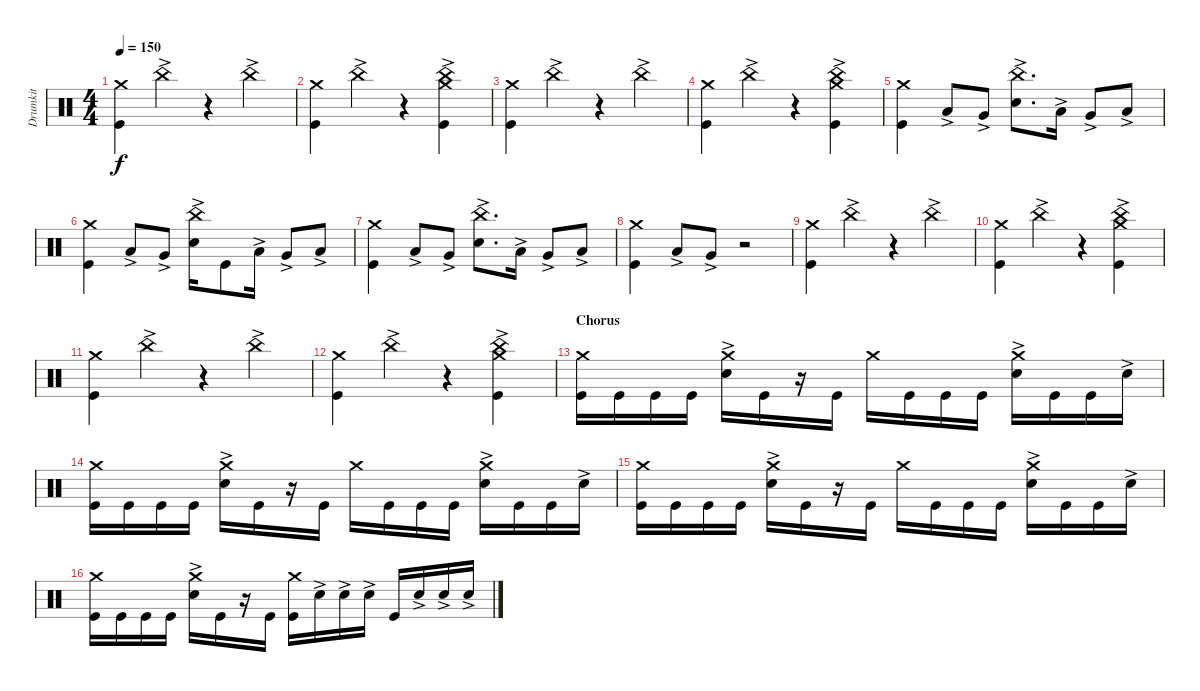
\track ("Drumkit" "Drumkit") {instrument percussion}
\staff {score}
\articulation defaults
\ts (4 4)
\tempo 150
\clef neutral
\ks c
("Kick (hit)" "Crash medium (hit)").4{dy f} "China (hit)"{ac}.4 r.4 "China (hit)"{ac}.4 |
("Crash medium (hit)" "Kick (hit)").4 "China (hit)"{ac}.4 r.4 ("China (hit)"{ac} "Kick (hit)" "Crash medium (hit)").4 |
("Crash medium (hit)" "Kick (hit)").4 "China (hit)"{ac}.4 r.4 "China (hit)"{ac}.4 |
("Crash medium (hit)" "Kick (hit)").4 "China (hit)"{ac}.4 r.4 ("China (hit)"{ac} "Kick (hit)" "Crash medium (hit)").4 |
("Kick (hit)" "Crash medium (hit)").4 "Low Tom (hit)"{ac}.8 "Very Low Tom (hit)"{ac}.8 ("Snare (hit) 2"{ac} "China (hit)"{ac}).8{d} "Low Tom (hit)"{ac}.16 "Very Low Tom (hit)"{ac}.8 "Low Floor Tom (hit)"{ac}.8 |
("Kick (hit)" "Crash medium (hit)").4 "Low Tom (hit)"{ac}.8 "Very Low Tom (hit)"{ac}.8 ("Snare (hit) 2"{ac} "China (hit)"{ac}).16 "Kick (hit)".8 "Low Tom (hit)"{ac}.16 "Very Low Tom (hit)"{ac}.8 "Low Floor Tom (hit)"{ac}.8 |
("Kick (hit)" "Crash medium (hit)").4 "Low Tom (hit)"{ac}.8 "Very Low Tom (hit)"{ac}.8 ("Snare (hit) 2"{ac} "China (hit)"{ac}).8{d} "Low Tom (hit)"{ac}.16 "Very Low Tom (hit)"{ac}.8 "Low Floor Tom (hit)"{ac}.8 |
("Kick (hit)" "Crash medium (hit)").4 "Low Tom (hit)"{ac}.8 "Very Low Tom (hit)"{ac}.8 r.2 |
("Kick (hit)" "Crash medium (hit)").4 "China (hit)"{ac}.4 r.4 "China (hit)"{ac}.4 |
("Crash medium (hit)" "Kick (hit)").4 "China (hit)"{ac}.4 r.4 ("China (hit)"{ac} "Kick (hit)" "Crash medium (hit)").4 |
("Crash medium (hit)" "Kick (hit)").4 "China (hit)"{ac}.4 r.4 "China (hit)"{ac}.4 |
("Crash medium (hit)" "Kick (hit)").4 "China (hit)"{ac}.4 r.4 ("China (hit)"{ac} "Kick (hit)" "Crash medium (hit)").4 |
\section ("" "Chorus")
("Crash medium (hit)" "Kick (hit)").16 "Kick (hit)".16 "Kick (hit)".16 "Kick (hit)".16 ("Crash medium (hit)" "Snare (hit) 2"{ac}).16 "Kick (hit)".16 r.16 "Kick (hit)".16 "Crash medium (hit)".16 "Kick (hit)".16 "Kick (hit)".16 "Kick (hit)".16 ("Crash medium (hit)" "Snare (hit) 2"{ac}).16 "Kick (hit)".16 "Kick (hit)".16 "Snare (hit) 2"{ac}.16 |
("Crash medium (hit)" "Kick (hit)").16 "Kick (hit)".16 "Kick (hit)".16 "Kick (hit)".16 ("Crash medium (hit)" "Snare (hit) 2"{ac}).16 "Kick (hit)".16 r.16 "Kick (hit)".16 "Crash medium (hit)".16 "Kick (hit)".16 "Kick (hit)".16 "Kick (hit)".16 ("Crash medium (hit)" "Snare (hit) 2"{ac}).16 "Kick (hit)".16 "Kick (hit)".16 "Snare (hit) 2"{ac}.16 |
("Crash medium (hit)" "Kick (hit)").16 "Kick (hit)".16 "Kick (hit)".16 "Kick (hit)".16 ("Crash medium (hit)" "Snare (hit) 2"{ac}).16 "Kick (hit)".16 r.16 "Kick (hit)".16 "Crash medium (hit)".16 "Kick (hit)".16 "Kick (hit)".16 "Kick (hit)".16 ("Crash medium (hit)" "Snare (hit) 2"{ac}).16 "Kick (hit)".16 "Kick (hit)".16 "Snare (hit) 2"{ac}.16 |
("Crash medium (hit)" "Kick (hit)").16 "Kick (hit)".16 "Kick (hit)".16 "Kick (hit)".16 ("Crash medium (hit)" "Snare (hit) 2"{ac}).16 "Kick (hit)".16 r.16 "Kick (hit)".16 ("Kick (hit)" "Crash medium (hit)").16 "Snare (hit) 2"{ac}.16 "Snare (hit) 2"{ac}.16 "Snare (hit) 2"{ac}.16 "Kick (hit)".16 "Snare (hit) 2"{ac}.16 "Snare (hit) 2"{ac}.16 "Snare (hit) 2"{ac}.16
